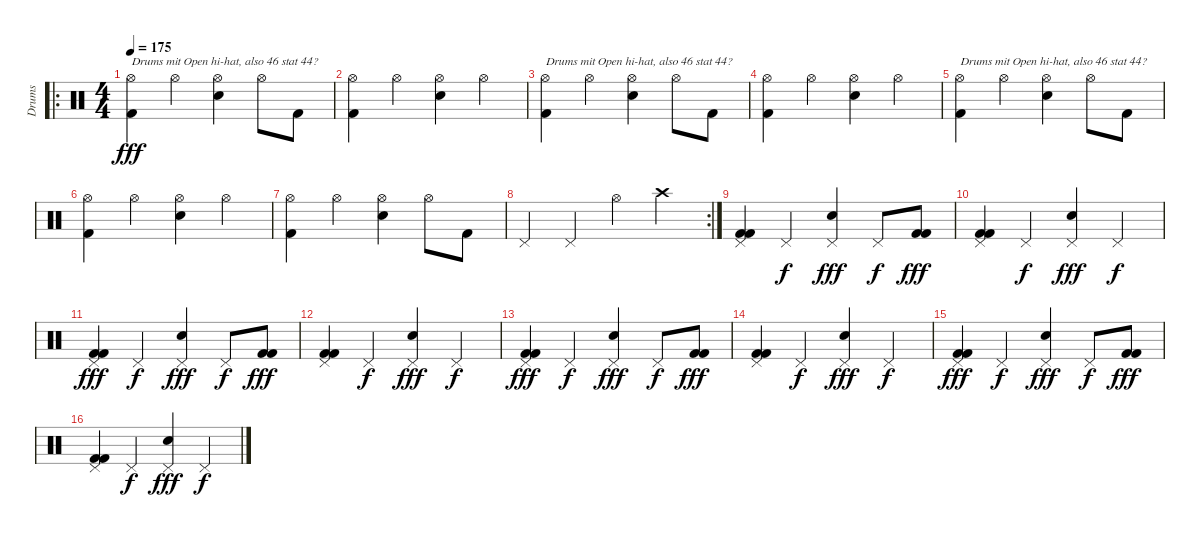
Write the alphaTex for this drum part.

\track ("Drums" "Drums") {instrument percussion}
\staff {score}
\articulation defaults
\ro
\ts (4 4)
\tempo 175
\clef neutral
\ks c
("Hi-Hat (open)" "Kick (hit) 2").4{txt "Drums mit Open hi-hat, also 46 stat 44?" dy fff} "Hi-Hat (open)".4 ("Hi-Hat (open)" "Snare (hit) 2").4 "Hi-Hat (open)".8 "Kick (hit) 2".8 |
("Hi-Hat (open)" "Kick (hit) 2").4 "Hi-Hat (open)".4 ("Hi-Hat (open)" "Snare (hit) 2").4 "Hi-Hat (open)".4 |
("Hi-Hat (open)" "Kick (hit) 2").4{txt "Drums mit Open hi-hat, also 46 stat 44?"} "Hi-Hat (open)".4 ("Hi-Hat (open)" "Snare (hit) 2").4 "Hi-Hat (open)".8 "Kick (hit) 2".8 |
("Hi-Hat (open)" "Kick (hit) 2").4 "Hi-Hat (open)".4 ("Hi-Hat (open)" "Snare (hit) 2").4 "Hi-Hat (open)".4 |
("Hi-Hat (open)" "Kick (hit) 2").4{txt "Drums mit Open hi-hat, also 46 stat 44?"} "Hi-Hat (open)".4 ("Hi-Hat (open)" "Snare (hit) 2").4 "Hi-Hat (open)".8 "Kick (hit) 2".8 |
("Hi-Hat (open)" "Kick (hit) 2").4 "Hi-Hat (open)".4 ("Hi-Hat (open)" "Snare (hit) 2").4 "Hi-Hat (open)".4 |
("Hi-Hat (open)" "Kick (hit) 2").4 "Hi-Hat (open)".4 ("Hi-Hat (open)" "Snare (hit) 2").4 "Hi-Hat (open)".8 "Kick (hit) 2".8 |
\rc 2 "Pedal Hi-Hat (hit)".4 "Pedal Hi-Hat (hit)".4 "Hi-Hat (open)".4 "Crash high (hit)".4
|
("Pedal Hi-Hat (hit)" "Kick (hit) 2" "Kick (hit) 2").4 "Pedal Hi-Hat (hit)".4{dy f} ("Pedal Hi-Hat (hit)" "Snare (hit) 2").4{dy fff} "Pedal Hi-Hat (hit)".8{dy f} ("Kick (hit) 2" "Kick (hit) 2").8{dy fff} |
("Pedal Hi-Hat (hit)" "Kick (hit) 2" "Kick (hit) 2").4 "Pedal Hi-Hat (hit)".4{dy f} ("Pedal Hi-Hat (hit)" "Snare (hit) 2").4{dy fff} "Pedal Hi-Hat (hit)".4{dy f} |
("Pedal Hi-Hat (hit)" "Kick (hit) 2" "Kick (hit) 2").4{dy fff} "Pedal Hi-Hat (hit)".4{dy f} ("Pedal Hi-Hat (hit)" "Snare (hit) 2").4{dy fff} "Pedal Hi-Hat (hit)".8{dy f} ("Kick (hit) 2" "Kick (hit) 2").8{dy fff} |
("Pedal Hi-Hat (hit)" "Kick (hit) 2" "Kick (hit) 2").4 "Pedal Hi-Hat (hit)".4{dy f} ("Pedal Hi-Hat (hit)" "Snare (hit) 2").4{dy fff} "Pedal Hi-Hat (hit)".4{dy f} |
("Pedal Hi-Hat (hit)" "Kick (hit) 2" "Kick (hit) 2").4{dy fff} "Pedal Hi-Hat (hit)".4{dy f} ("Pedal Hi-Hat (hit)" "Snare (hit) 2").4{dy fff} "Pedal Hi-Hat (hit)".8{dy f} ("Kick (hit) 2" "Kick (hit) 2").8{dy fff} |
("Pedal Hi-Hat (hit)" "Kick (hit) 2" "Kick (hit) 2").4 "Pedal Hi-Hat (hit)".4{dy f} ("Pedal Hi-Hat (hit)" "Snare (hit) 2").4{dy fff} "Pedal Hi-Hat (hit)".4{dy f} |
("Pedal Hi-Hat (hit)" "Kick (hit) 2" "Kick (hit) 2").4{dy fff} "Pedal Hi-Hat (hit)".4{dy f} ("Pedal Hi-Hat (hit)" "Snare (hit) 2").4{dy fff} "Pedal Hi-Hat (hit)".8{dy f} ("Kick (hit) 2" "Kick (hit) 2").8{dy fff} |
("Pedal Hi-Hat (hit)" "Kick (hit) 2" "Kick (hit) 2").4 "Pedal Hi-Hat (hit)".4{dy f} ("Pedal Hi-Hat (hit)" "Snare (hit) 2").4{dy fff} "Pedal Hi-Hat (hit)".4{dy f}
